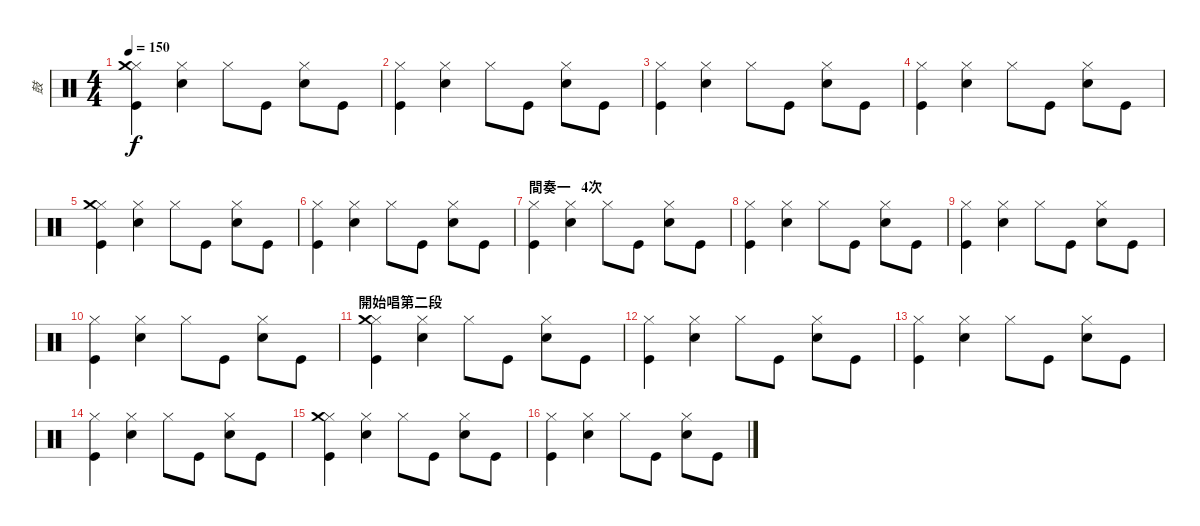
\track ("鼓" "鼓") {instrument percussion}
\staff {score}
\articulation defaults
\ts (4 4)
\tempo 150
\clef neutral
\ks c
("Kick (hit)" "Hi-Hat (closed)" "Crash medium (hit)").4{dy f} ("Snare (hit) 2" "Hi-Hat (closed)").4 "Hi-Hat (closed)".8 "Kick (hit)".8 ("Snare (hit) 2" "Hi-Hat (closed)").8 "Kick (hit)".8 |
("Kick (hit)" "Hi-Hat (closed)").4 ("Snare (hit) 2" "Hi-Hat (closed)").4 "Hi-Hat (closed)".8 "Kick (hit)".8 ("Snare (hit) 2" "Hi-Hat (closed)").8 "Kick (hit)".8 |
("Kick (hit)" "Hi-Hat (closed)").4 ("Snare (hit) 2" "Hi-Hat (closed)").4 "Hi-Hat (closed)".8 "Kick (hit)".8 ("Snare (hit) 2" "Hi-Hat (closed)").8 "Kick (hit)".8 |
("Kick (hit)" "Hi-Hat (closed)").4 ("Snare (hit) 2" "Hi-Hat (closed)").4 "Hi-Hat (closed)".8 "Kick (hit)".8 ("Snare (hit) 2" "Hi-Hat (closed)").8 "Kick (hit)".8 |
("Kick (hit)" "Hi-Hat (closed)" "Crash medium (hit)").4 ("Snare (hit) 2" "Hi-Hat (closed)").4 "Hi-Hat (closed)".8 "Kick (hit)".8 ("Snare (hit) 2" "Hi-Hat (closed)").8 "Kick (hit)".8 |
("Kick (hit)" "Hi-Hat (closed)").4 ("Snare (hit) 2" "Hi-Hat (closed)").4 "Hi-Hat (closed)".8 "Kick (hit)".8 ("Snare (hit) 2" "Hi-Hat (closed)").8 "Kick (hit)".8 |
\section ("" "間奏一   4次")
("Kick (hit)" "Hi-Hat (closed)").4 ("Snare (hit) 2" "Hi-Hat (closed)").4 "Hi-Hat (closed)".8 "Kick (hit)".8 ("Snare (hit) 2" "Hi-Hat (closed)").8 "Kick (hit)".8 |
("Kick (hit)" "Hi-Hat (closed)").4 ("Snare (hit) 2" "Hi-Hat (closed)").4 "Hi-Hat (closed)".8 "Kick (hit)".8 ("Snare (hit) 2" "Hi-Hat (closed)").8 "Kick (hit)".8 |
("Kick (hit)" "Hi-Hat (closed)").4 ("Snare (hit) 2" "Hi-Hat (closed)").4 "Hi-Hat (closed)".8 "Kick (hit)".8 ("Snare (hit) 2" "Hi-Hat (closed)").8 "Kick (hit)".8 |
("Kick (hit)" "Hi-Hat (closed)").4 ("Snare (hit) 2" "Hi-Hat (closed)").4 "Hi-Hat (closed)".8 "Kick (hit)".8 ("Snare (hit) 2" "Hi-Hat (closed)").8 "Kick (hit)".8 |
\section ("" "開始唱第二段")
("Kick (hit)" "Hi-Hat (closed)" "Crash medium (hit)").4 ("Snare (hit) 2" "Hi-Hat (closed)").4 "Hi-Hat (closed)".8 "Kick (hit)".8 ("Snare (hit) 2" "Hi-Hat (closed)").8 "Kick (hit)".8 |
("Kick (hit)" "Hi-Hat (closed)").4 ("Snare (hit) 2" "Hi-Hat (closed)").4 "Hi-Hat (closed)".8 "Kick (hit)".8 ("Snare (hit) 2" "Hi-Hat (closed)").8 "Kick (hit)".8 |
("Kick (hit)" "Hi-Hat (closed)").4 ("Snare (hit) 2" "Hi-Hat (closed)").4 "Hi-Hat (closed)".8 "Kick (hit)".8 ("Snare (hit) 2" "Hi-Hat (closed)").8 "Kick (hit)".8 |
("Kick (hit)" "Hi-Hat (closed)").4 ("Snare (hit) 2" "Hi-Hat (closed)").4 "Hi-Hat (closed)".8 "Kick (hit)".8 ("Snare (hit) 2" "Hi-Hat (closed)").8 "Kick (hit)".8 |
("Kick (hit)" "Hi-Hat (closed)" "Crash medium (hit)").4 ("Snare (hit) 2" "Hi-Hat (closed)").4 "Hi-Hat (closed)".8 "Kick (hit)".8 ("Snare (hit) 2" "Hi-Hat (closed)").8 "Kick (hit)".8 |
("Kick (hit)" "Hi-Hat (closed)").4 ("Snare (hit) 2" "Hi-Hat (closed)").4 "Hi-Hat (closed)".8 "Kick (hit)".8 ("Snare (hit) 2" "Hi-Hat (closed)").8 "Kick (hit)".8
